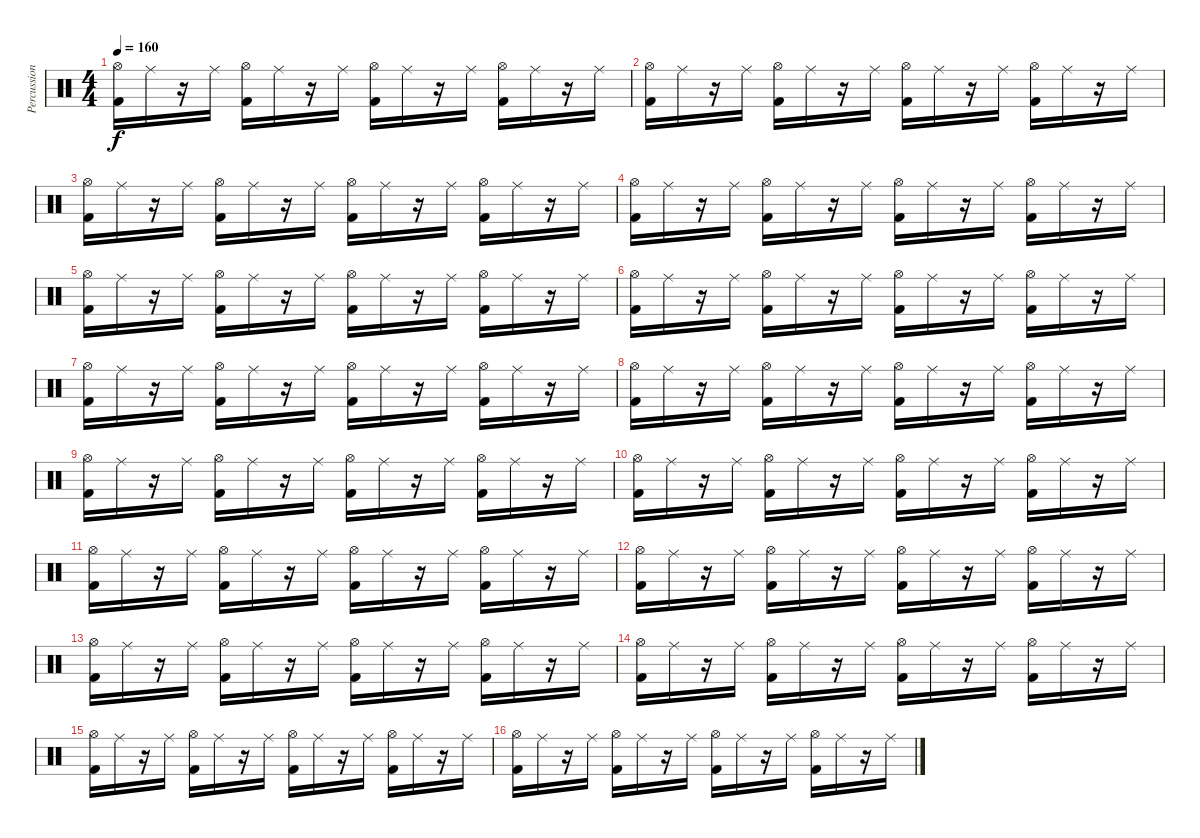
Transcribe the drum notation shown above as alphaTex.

\track ("Percussion" "Percussion") {instrument percussion}
\staff {score}
\articulation defaults
\ts (4 4)
\tempo 160
\clef neutral
\ks c
("Kick (hit) 2" "Hi-Hat (open)").16{dy f} "Ride (middle)".16 r.16 "Ride (middle)".16 ("Kick (hit) 2" "Hi-Hat (open)").16 "Ride (middle)".16 r.16 "Ride (middle)".16 ("Kick (hit) 2" "Hi-Hat (open)").16 "Ride (middle)".16 r.16 "Ride (middle)".16 ("Kick (hit) 2" "Hi-Hat (open)").16 "Ride (middle)".16 r.16 "Ride (middle)".16 |
("Kick (hit) 2" "Hi-Hat (open)").16 "Ride (middle)".16 r.16 "Ride (middle)".16 ("Kick (hit) 2" "Hi-Hat (open)").16 "Ride (middle)".16 r.16 "Ride (middle)".16 ("Kick (hit) 2" "Hi-Hat (open)").16 "Ride (middle)".16 r.16 "Ride (middle)".16 ("Kick (hit) 2" "Hi-Hat (open)").16 "Ride (middle)".16 r.16 "Ride (middle)".16 |
("Kick (hit) 2" "Hi-Hat (open)").16 "Ride (middle)".16 r.16 "Ride (middle)".16 ("Kick (hit) 2" "Hi-Hat (open)").16 "Ride (middle)".16 r.16 "Ride (middle)".16 ("Kick (hit) 2" "Hi-Hat (open)").16 "Ride (middle)".16 r.16 "Ride (middle)".16 ("Kick (hit) 2" "Hi-Hat (open)").16 "Ride (middle)".16 r.16 "Ride (middle)".16 |
("Kick (hit) 2" "Hi-Hat (open)").16 "Ride (middle)".16 r.16 "Ride (middle)".16 ("Kick (hit) 2" "Hi-Hat (open)").16 "Ride (middle)".16 r.16 "Ride (middle)".16 ("Kick (hit) 2" "Hi-Hat (open)").16 "Ride (middle)".16 r.16 "Ride (middle)".16 ("Kick (hit) 2" "Hi-Hat (open)").16 "Ride (middle)".16 r.16 "Ride (middle)".16 |
("Kick (hit) 2" "Hi-Hat (open)").16 "Ride (middle)".16 r.16 "Ride (middle)".16 ("Kick (hit) 2" "Hi-Hat (open)").16 "Ride (middle)".16 r.16 "Ride (middle)".16 ("Kick (hit) 2" "Hi-Hat (open)").16 "Ride (middle)".16 r.16 "Ride (middle)".16 ("Kick (hit) 2" "Hi-Hat (open)").16 "Ride (middle)".16 r.16 "Ride (middle)".16 |
("Kick (hit) 2" "Hi-Hat (open)").16 "Ride (middle)".16 r.16 "Ride (middle)".16 ("Kick (hit) 2" "Hi-Hat (open)").16 "Ride (middle)".16 r.16 "Ride (middle)".16 ("Kick (hit) 2" "Hi-Hat (open)").16 "Ride (middle)".16 r.16 "Ride (middle)".16 ("Kick (hit) 2" "Hi-Hat (open)").16 "Ride (middle)".16 r.16 "Ride (middle)".16 |
("Kick (hit) 2" "Hi-Hat (open)").16 "Ride (middle)".16 r.16 "Ride (middle)".16 ("Kick (hit) 2" "Hi-Hat (open)").16 "Ride (middle)".16 r.16 "Ride (middle)".16 ("Kick (hit) 2" "Hi-Hat (open)").16 "Ride (middle)".16 r.16 "Ride (middle)".16 ("Kick (hit) 2" "Hi-Hat (open)").16 "Ride (middle)".16 r.16 "Ride (middle)".16 |
("Kick (hit) 2" "Hi-Hat (open)").16 "Ride (middle)".16 r.16 "Ride (middle)".16 ("Kick (hit) 2" "Hi-Hat (open)").16 "Ride (middle)".16 r.16 "Ride (middle)".16 ("Kick (hit) 2" "Hi-Hat (open)").16 "Ride (middle)".16 r.16 "Ride (middle)".16 ("Kick (hit) 2" "Hi-Hat (open)").16 "Ride (middle)".16 r.16 "Ride (middle)".16 |
("Kick (hit) 2" "Hi-Hat (open)").16 "Ride (middle)".16 r.16 "Ride (middle)".16 ("Kick (hit) 2" "Hi-Hat (open)").16 "Ride (middle)".16 r.16 "Ride (middle)".16 ("Kick (hit) 2" "Hi-Hat (open)").16 "Ride (middle)".16 r.16 "Ride (middle)".16 ("Kick (hit) 2" "Hi-Hat (open)").16 "Ride (middle)".16 r.16 "Ride (middle)".16 |
("Kick (hit) 2" "Hi-Hat (open)").16 "Ride (middle)".16 r.16 "Ride (middle)".16 ("Kick (hit) 2" "Hi-Hat (open)").16 "Ride (middle)".16 r.16 "Ride (middle)".16 ("Kick (hit) 2" "Hi-Hat (open)").16 "Ride (middle)".16 r.16 "Ride (middle)".16 ("Kick (hit) 2" "Hi-Hat (open)").16 "Ride (middle)".16 r.16 "Ride (middle)".16 |
("Kick (hit) 2" "Hi-Hat (open)").16 "Ride (middle)".16 r.16 "Ride (middle)".16 ("Kick (hit) 2" "Hi-Hat (open)").16 "Ride (middle)".16 r.16 "Ride (middle)".16 ("Kick (hit) 2" "Hi-Hat (open)").16 "Ride (middle)".16 r.16 "Ride (middle)".16 ("Kick (hit) 2" "Hi-Hat (open)").16 "Ride (middle)".16 r.16 "Ride (middle)".16 |
("Kick (hit) 2" "Hi-Hat (open)").16 "Ride (middle)".16 r.16 "Ride (middle)".16 ("Kick (hit) 2" "Hi-Hat (open)").16 "Ride (middle)".16 r.16 "Ride (middle)".16 ("Kick (hit) 2" "Hi-Hat (open)").16 "Ride (middle)".16 r.16 "Ride (middle)".16 ("Kick (hit) 2" "Hi-Hat (open)").16 "Ride (middle)".16 r.16 "Ride (middle)".16 |
("Kick (hit) 2" "Hi-Hat (open)").16 "Ride (middle)".16 r.16 "Ride (middle)".16 ("Kick (hit) 2" "Hi-Hat (open)").16 "Ride (middle)".16 r.16 "Ride (middle)".16 ("Kick (hit) 2" "Hi-Hat (open)").16 "Ride (middle)".16 r.16 "Ride (middle)".16 ("Kick (hit) 2" "Hi-Hat (open)").16 "Ride (middle)".16 r.16 "Ride (middle)".16 |
("Kick (hit) 2" "Hi-Hat (open)").16 "Ride (middle)".16 r.16 "Ride (middle)".16 ("Kick (hit) 2" "Hi-Hat (open)").16 "Ride (middle)".16 r.16 "Ride (middle)".16 ("Kick (hit) 2" "Hi-Hat (open)").16 "Ride (middle)".16 r.16 "Ride (middle)".16 ("Kick (hit) 2" "Hi-Hat (open)").16 "Ride (middle)".16 r.16 "Ride (middle)".16 |
("Kick (hit) 2" "Hi-Hat (open)").16 "Ride (middle)".16 r.16 "Ride (middle)".16 ("Kick (hit) 2" "Hi-Hat (open)").16 "Ride (middle)".16 r.16 "Ride (middle)".16 ("Kick (hit) 2" "Hi-Hat (open)").16 "Ride (middle)".16 r.16 "Ride (middle)".16 ("Kick (hit) 2" "Hi-Hat (open)").16 "Ride (middle)".16 r.16 "Ride (middle)".16 |
("Kick (hit) 2" "Hi-Hat (open)").16 "Ride (middle)".16 r.16 "Ride (middle)".16 ("Kick (hit) 2" "Hi-Hat (open)").16 "Ride (middle)".16 r.16 "Ride (middle)".16 ("Kick (hit) 2" "Hi-Hat (open)").16 "Ride (middle)".16 r.16 "Ride (middle)".16 ("Kick (hit) 2" "Hi-Hat (open)").16 "Ride (middle)".16 r.16 "Ride (middle)".16
